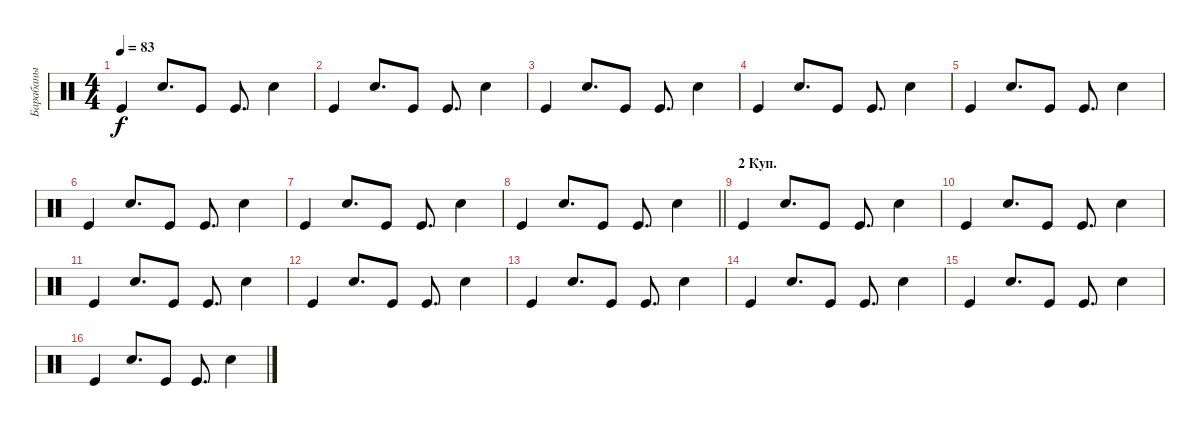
\track ("Барабаны" "Барабаны") {instrument percussion}
\staff {score}
\articulation defaults
\ts (4 4)
\tempo 83
\clef neutral
\ks c "Kick (hit)".4{dy f} "Snare (hit) 2".8{d} "Kick (hit)".8 "Kick (hit)".8{d} "Snare (hit) 2".4
|
"Kick (hit)".4 "Snare (hit) 2".8{d} "Kick (hit)".8 "Kick (hit)".8{d} "Snare (hit) 2".4 |
"Kick (hit)".4 "Snare (hit) 2".8{d} "Kick (hit)".8 "Kick (hit)".8{d} "Snare (hit) 2".4 |
"Kick (hit)".4 "Snare (hit) 2".8{d} "Kick (hit)".8 "Kick (hit)".8{d} "Snare (hit) 2".4 |
"Kick (hit)".4 "Snare (hit) 2".8{d} "Kick (hit)".8 "Kick (hit)".8{d} "Snare (hit) 2".4 |
"Kick (hit)".4 "Snare (hit) 2".8{d} "Kick (hit)".8 "Kick (hit)".8{d} "Snare (hit) 2".4 |
"Kick (hit)".4 "Snare (hit) 2".8{d} "Kick (hit)".8 "Kick (hit)".8{d} "Snare (hit) 2".4 |
\barLineRight lightlight "Kick (hit)".4 "Snare (hit) 2".8{d} "Kick (hit)".8 "Kick (hit)".8{d} "Snare (hit) 2".4
|
\section ("" "2 Куп.")
"Kick (hit)".4 "Snare (hit) 2".8{d} "Kick (hit)".8 "Kick (hit)".8{d} "Snare (hit) 2".4 |
"Kick (hit)".4 "Snare (hit) 2".8{d} "Kick (hit)".8 "Kick (hit)".8{d} "Snare (hit) 2".4 |
"Kick (hit)".4 "Snare (hit) 2".8{d} "Kick (hit)".8 "Kick (hit)".8{d} "Snare (hit) 2".4 |
"Kick (hit)".4 "Snare (hit) 2".8{d} "Kick (hit)".8 "Kick (hit)".8{d} "Snare (hit) 2".4 |
"Kick (hit)".4 "Snare (hit) 2".8{d} "Kick (hit)".8 "Kick (hit)".8{d} "Snare (hit) 2".4 |
"Kick (hit)".4 "Snare (hit) 2".8{d} "Kick (hit)".8 "Kick (hit)".8{d} "Snare (hit) 2".4 |
"Kick (hit)".4 "Snare (hit) 2".8{d} "Kick (hit)".8 "Kick (hit)".8{d} "Snare (hit) 2".4 |
"Kick (hit)".4 "Snare (hit) 2".8{d} "Kick (hit)".8 "Kick (hit)".8{d} "Snare (hit) 2".4
